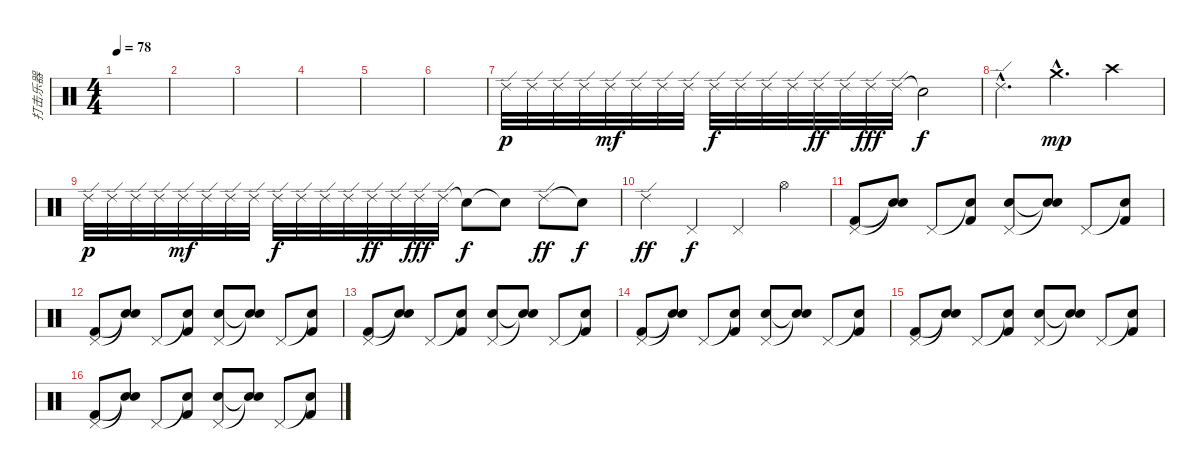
\track ("打击乐器" "打击乐器") {instrument percussion}
\staff {score}
\articulation defaults
\ts (4 4)
\tempo 78
\clef neutral
\ks c
|
|
|
|
|
|
"Ride (edge) 2".32{dy p} "Ride (edge) 2".32 "Ride (edge) 2".32 "Ride (edge) 2".32 "Ride (edge) 2".32{dy mf} "Ride (edge) 2".32 "Ride (edge) 2".32 "Ride (edge) 2".32 "Ride (edge) 2".32{dy f} "Ride (edge) 2".32 "Ride (edge) 2".32 "Ride (edge) 2".32 "Ride (edge) 2".32{dy ff} "Ride (edge) 2".32 "Ride (edge) 2".32{dy fff} "Ride (edge) 2".32 "Snare (hit)"{t}.2{dy f} |
"Ride (edge) 2"{hac}.4{d} "Crash medium (hit)"{hac}.4{d dy mp} "Crash high (hit)".4 |
"Ride (edge) 2".32{dy p} "Ride (edge) 2".32 "Ride (edge) 2".32 "Ride (edge) 2".32 "Ride (edge) 2".32{dy mf} "Ride (edge) 2".32 "Ride (edge) 2".32 "Ride (edge) 2".32 "Ride (edge) 2".32{dy f} "Ride (edge) 2".32 "Ride (edge) 2".32 "Ride (edge) 2".32 "Ride (edge) 2".32{dy ff} "Ride (edge) 2".32 "Ride (edge) 2".32{dy fff} "Ride (edge) 2".32 "Snare (hit)"{t}.8{dy f} "Snare (hit)"{t}.8 "Ride (edge) 2".8{dy ff} "Snare (hit)"{t}.8{dy f} |
"Ride (edge) 2".4{dy ff} "Pedal Hi-Hat (hit)".4{dy f} "Pedal Hi-Hat (hit)".4 "Hi-Hat (open)".4 |
("Pedal Hi-Hat (hit)" "Kick (hit) 2").8 ("Snare (hit)"{t} "Snare (hit)"{t}).8 "Pedal Hi-Hat (hit)".8 ("Snare (hit)"{t} "Kick (hit) 2").8 ("Pedal Hi-Hat (hit)" "Electric Snare (hit)").8 ("Snare (hit)"{t} "Snare (hit)"{t}).8 "Pedal Hi-Hat (hit)".8 ("Snare (hit)"{t} "Kick (hit) 2").8 |
("Pedal Hi-Hat (hit)" "Kick (hit) 2").8 ("Snare (hit)"{t} "Snare (hit)"{t}).8 "Pedal Hi-Hat (hit)".8 ("Snare (hit)"{t} "Kick (hit) 2").8 ("Pedal Hi-Hat (hit)" "Electric Snare (hit)").8 ("Snare (hit)"{t} "Snare (hit)"{t}).8 "Pedal Hi-Hat (hit)".8 ("Snare (hit)"{t} "Kick (hit) 2").8 |
("Pedal Hi-Hat (hit)" "Kick (hit) 2").8 ("Snare (hit)"{t} "Snare (hit)"{t}).8 "Pedal Hi-Hat (hit)".8 ("Snare (hit)"{t} "Kick (hit) 2").8 ("Pedal Hi-Hat (hit)" "Electric Snare (hit)").8 ("Snare (hit)"{t} "Snare (hit)"{t}).8 "Pedal Hi-Hat (hit)".8 ("Snare (hit)"{t} "Kick (hit) 2").8 |
("Pedal Hi-Hat (hit)" "Kick (hit) 2").8 ("Snare (hit)"{t} "Snare (hit)"{t}).8 "Pedal Hi-Hat (hit)".8 ("Snare (hit)"{t} "Kick (hit) 2").8 ("Pedal Hi-Hat (hit)" "Electric Snare (hit)").8 ("Snare (hit)"{t} "Snare (hit)"{t}).8 "Pedal Hi-Hat (hit)".8 ("Snare (hit)"{t} "Kick (hit) 2").8 |
("Pedal Hi-Hat (hit)" "Kick (hit) 2").8 ("Snare (hit)"{t} "Snare (hit)"{t}).8 "Pedal Hi-Hat (hit)".8 ("Snare (hit)"{t} "Kick (hit) 2").8 ("Pedal Hi-Hat (hit)" "Electric Snare (hit)").8 ("Snare (hit)"{t} "Snare (hit)"{t}).8 "Pedal Hi-Hat (hit)".8 ("Snare (hit)"{t} "Kick (hit) 2").8 |
("Pedal Hi-Hat (hit)" "Kick (hit) 2").8 ("Snare (hit)"{t} "Snare (hit)"{t}).8 "Pedal Hi-Hat (hit)".8 ("Snare (hit)"{t} "Kick (hit) 2").8 ("Pedal Hi-Hat (hit)" "Electric Snare (hit)").8 ("Snare (hit)"{t} "Snare (hit)"{t}).8 "Pedal Hi-Hat (hit)".8 ("Snare (hit)"{t} "Kick (hit) 2").8
